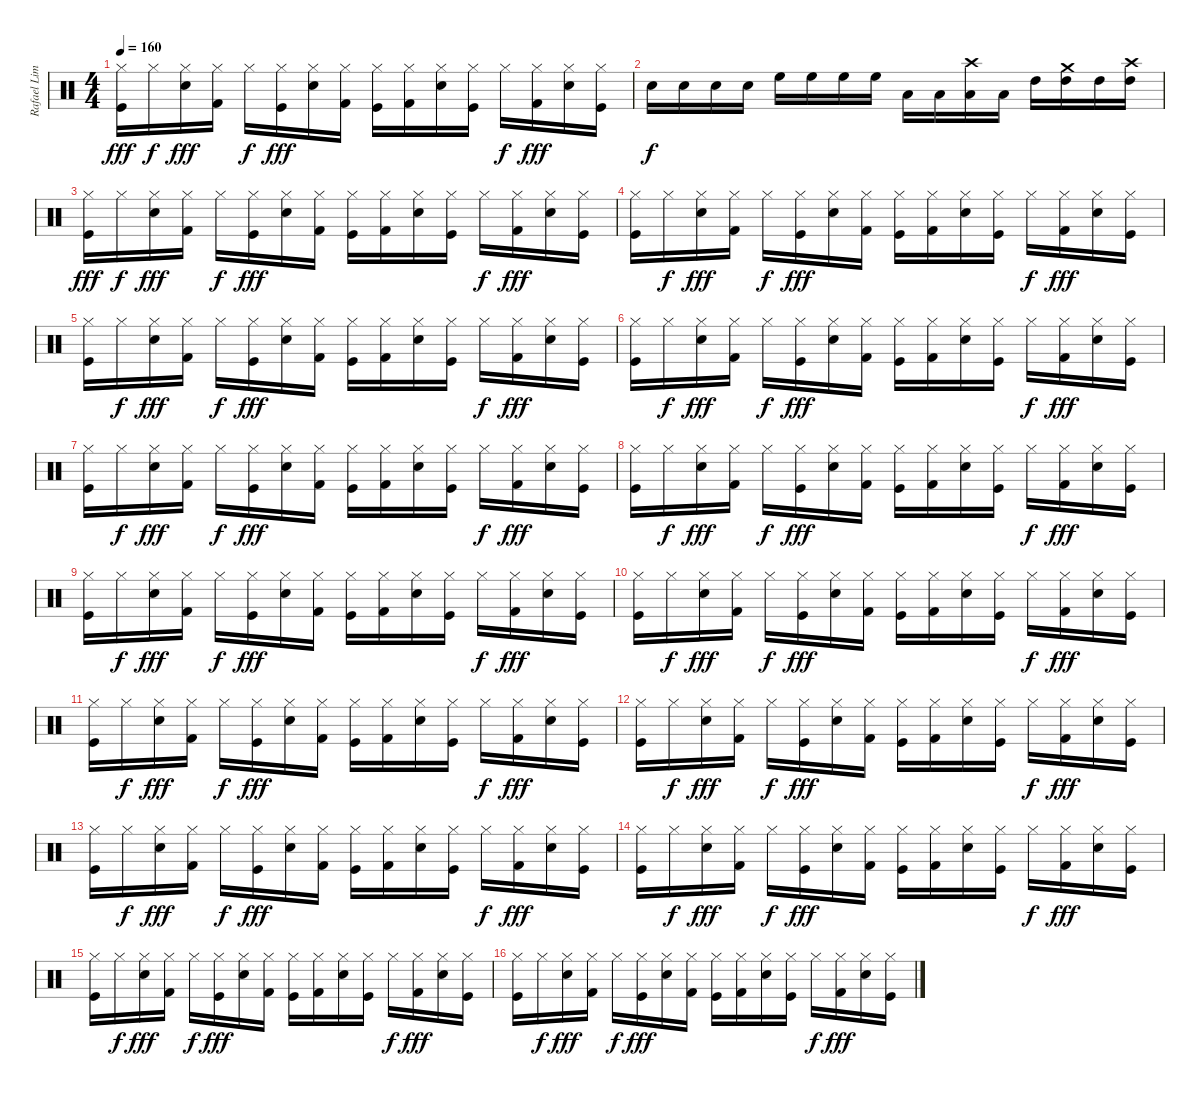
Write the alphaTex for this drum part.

\track ("Rafael Lima" "Rafael Lim") {instrument percussion}
\staff {score}
\articulation defaults
\ts (4 4)
\tempo 160
\clef neutral
\ks c
("Hi-Hat (closed)" "Kick (hit)").16{dy fff} "Hi-Hat (closed)".16{dy f} ("Hi-Hat (closed)" "Electric Snare (hit)").16{dy fff} ("Hi-Hat (closed)" "Kick (hit) 2").16 "Hi-Hat (closed)".16{dy f} ("Hi-Hat (closed)" "Kick (hit)").16{dy fff} ("Hi-Hat (closed)" "Electric Snare (hit)").16 ("Hi-Hat (closed)" "Kick (hit) 2").16 ("Hi-Hat (closed)" "Kick (hit)").16 ("Hi-Hat (closed)" "Kick (hit) 2").16 ("Hi-Hat (closed)" "Electric Snare (hit)").16 ("Hi-Hat (closed)" "Kick (hit)").16 "Hi-Hat (closed)".16{dy f} ("Hi-Hat (closed)" "Kick (hit) 2").16{dy fff} ("Hi-Hat (closed)" "Electric Snare (hit)").16 ("Hi-Hat (closed)" "Kick (hit)").16 |
"Electric Snare (hit)".16{dy f} "Electric Snare (hit)".16 "Electric Snare (hit)".16 "Electric Snare (hit)".16 "High Floor Tom (hit)".16 "High Floor Tom (hit)".16 "High Floor Tom (hit)".16 "High Floor Tom (hit)".16 "Low Floor Tom (hit)".16 "Low Floor Tom (hit)".16 ("Crash high (hit)" "Low Floor Tom (hit)").16 "Low Floor Tom (hit)".16 "High Tom (hit)".16 ("Crash medium (hit)" "High Tom (hit)").16 "High Tom (hit)".16 ("Crash high (hit)" "High Tom (hit)").16 |
("Hi-Hat (closed)" "Kick (hit)").16{dy fff} "Hi-Hat (closed)".16{dy f} ("Hi-Hat (closed)" "Electric Snare (hit)").16{dy fff} ("Hi-Hat (closed)" "Kick (hit) 2").16 "Hi-Hat (closed)".16{dy f} ("Hi-Hat (closed)" "Kick (hit)").16{dy fff} ("Hi-Hat (closed)" "Electric Snare (hit)").16 ("Hi-Hat (closed)" "Kick (hit) 2").16 ("Hi-Hat (closed)" "Kick (hit)").16 ("Hi-Hat (closed)" "Kick (hit) 2").16 ("Hi-Hat (closed)" "Electric Snare (hit)").16 ("Hi-Hat (closed)" "Kick (hit)").16 "Hi-Hat (closed)".16{dy f} ("Hi-Hat (closed)" "Kick (hit) 2").16{dy fff} ("Hi-Hat (closed)" "Electric Snare (hit)").16 ("Hi-Hat (closed)" "Kick (hit)").16 |
("Hi-Hat (closed)" "Kick (hit)").16 "Hi-Hat (closed)".16{dy f} ("Hi-Hat (closed)" "Electric Snare (hit)").16{dy fff} ("Hi-Hat (closed)" "Kick (hit) 2").16 "Hi-Hat (closed)".16{dy f} ("Hi-Hat (closed)" "Kick (hit)").16{dy fff} ("Hi-Hat (closed)" "Electric Snare (hit)").16 ("Hi-Hat (closed)" "Kick (hit) 2").16 ("Hi-Hat (closed)" "Kick (hit)").16 ("Hi-Hat (closed)" "Kick (hit) 2").16 ("Hi-Hat (closed)" "Electric Snare (hit)").16 ("Hi-Hat (closed)" "Kick (hit)").16 "Hi-Hat (closed)".16{dy f} ("Hi-Hat (closed)" "Kick (hit) 2").16{dy fff} ("Hi-Hat (closed)" "Electric Snare (hit)").16 ("Hi-Hat (closed)" "Kick (hit)").16 |
("Hi-Hat (closed)" "Kick (hit)").16 "Hi-Hat (closed)".16{dy f} ("Hi-Hat (closed)" "Electric Snare (hit)").16{dy fff} ("Hi-Hat (closed)" "Kick (hit) 2").16 "Hi-Hat (closed)".16{dy f} ("Hi-Hat (closed)" "Kick (hit)").16{dy fff} ("Hi-Hat (closed)" "Electric Snare (hit)").16 ("Hi-Hat (closed)" "Kick (hit) 2").16 ("Hi-Hat (closed)" "Kick (hit)").16 ("Hi-Hat (closed)" "Kick (hit) 2").16 ("Hi-Hat (closed)" "Electric Snare (hit)").16 ("Hi-Hat (closed)" "Kick (hit)").16 "Hi-Hat (closed)".16{dy f} ("Hi-Hat (closed)" "Kick (hit) 2").16{dy fff} ("Hi-Hat (closed)" "Electric Snare (hit)").16 ("Hi-Hat (closed)" "Kick (hit)").16 |
("Hi-Hat (closed)" "Kick (hit)").16 "Hi-Hat (closed)".16{dy f} ("Hi-Hat (closed)" "Electric Snare (hit)").16{dy fff} ("Hi-Hat (closed)" "Kick (hit) 2").16 "Hi-Hat (closed)".16{dy f} ("Hi-Hat (closed)" "Kick (hit)").16{dy fff} ("Hi-Hat (closed)" "Electric Snare (hit)").16 ("Hi-Hat (closed)" "Kick (hit) 2").16 ("Hi-Hat (closed)" "Kick (hit)").16 ("Hi-Hat (closed)" "Kick (hit) 2").16 ("Hi-Hat (closed)" "Electric Snare (hit)").16 ("Hi-Hat (closed)" "Kick (hit)").16 "Hi-Hat (closed)".16{dy f} ("Hi-Hat (closed)" "Kick (hit) 2").16{dy fff} ("Hi-Hat (closed)" "Electric Snare (hit)").16 ("Hi-Hat (closed)" "Kick (hit)").16 |
("Hi-Hat (closed)" "Kick (hit)").16 "Hi-Hat (closed)".16{dy f} ("Hi-Hat (closed)" "Electric Snare (hit)").16{dy fff} ("Hi-Hat (closed)" "Kick (hit) 2").16 "Hi-Hat (closed)".16{dy f} ("Hi-Hat (closed)" "Kick (hit)").16{dy fff} ("Hi-Hat (closed)" "Electric Snare (hit)").16 ("Hi-Hat (closed)" "Kick (hit) 2").16 ("Hi-Hat (closed)" "Kick (hit)").16 ("Hi-Hat (closed)" "Kick (hit) 2").16 ("Hi-Hat (closed)" "Electric Snare (hit)").16 ("Hi-Hat (closed)" "Kick (hit)").16 "Hi-Hat (closed)".16{dy f} ("Hi-Hat (closed)" "Kick (hit) 2").16{dy fff} ("Hi-Hat (closed)" "Electric Snare (hit)").16 ("Hi-Hat (closed)" "Kick (hit)").16 |
("Hi-Hat (closed)" "Kick (hit)").16 "Hi-Hat (closed)".16{dy f} ("Hi-Hat (closed)" "Electric Snare (hit)").16{dy fff} ("Hi-Hat (closed)" "Kick (hit) 2").16 "Hi-Hat (closed)".16{dy f} ("Hi-Hat (closed)" "Kick (hit)").16{dy fff} ("Hi-Hat (closed)" "Electric Snare (hit)").16 ("Hi-Hat (closed)" "Kick (hit) 2").16 ("Hi-Hat (closed)" "Kick (hit)").16 ("Hi-Hat (closed)" "Kick (hit) 2").16 ("Hi-Hat (closed)" "Electric Snare (hit)").16 ("Hi-Hat (closed)" "Kick (hit)").16 "Hi-Hat (closed)".16{dy f} ("Hi-Hat (closed)" "Kick (hit) 2").16{dy fff} ("Hi-Hat (closed)" "Electric Snare (hit)").16 ("Hi-Hat (closed)" "Kick (hit)").16 |
("Hi-Hat (closed)" "Kick (hit)").16 "Hi-Hat (closed)".16{dy f} ("Hi-Hat (closed)" "Electric Snare (hit)").16{dy fff} ("Hi-Hat (closed)" "Kick (hit) 2").16 "Hi-Hat (closed)".16{dy f} ("Hi-Hat (closed)" "Kick (hit)").16{dy fff} ("Hi-Hat (closed)" "Electric Snare (hit)").16 ("Hi-Hat (closed)" "Kick (hit) 2").16 ("Hi-Hat (closed)" "Kick (hit)").16 ("Hi-Hat (closed)" "Kick (hit) 2").16 ("Hi-Hat (closed)" "Electric Snare (hit)").16 ("Hi-Hat (closed)" "Kick (hit)").16 "Hi-Hat (closed)".16{dy f} ("Hi-Hat (closed)" "Kick (hit) 2").16{dy fff} ("Hi-Hat (closed)" "Electric Snare (hit)").16 ("Hi-Hat (closed)" "Kick (hit)").16 |
("Hi-Hat (closed)" "Kick (hit)").16 "Hi-Hat (closed)".16{dy f} ("Hi-Hat (closed)" "Electric Snare (hit)").16{dy fff} ("Hi-Hat (closed)" "Kick (hit) 2").16 "Hi-Hat (closed)".16{dy f} ("Hi-Hat (closed)" "Kick (hit)").16{dy fff} ("Hi-Hat (closed)" "Electric Snare (hit)").16 ("Hi-Hat (closed)" "Kick (hit) 2").16 ("Hi-Hat (closed)" "Kick (hit)").16 ("Hi-Hat (closed)" "Kick (hit) 2").16 ("Hi-Hat (closed)" "Electric Snare (hit)").16 ("Hi-Hat (closed)" "Kick (hit)").16 "Hi-Hat (closed)".16{dy f} ("Hi-Hat (closed)" "Kick (hit) 2").16{dy fff} ("Hi-Hat (closed)" "Electric Snare (hit)").16 ("Hi-Hat (closed)" "Kick (hit)").16 |
("Hi-Hat (closed)" "Kick (hit)").16 "Hi-Hat (closed)".16{dy f} ("Hi-Hat (closed)" "Electric Snare (hit)").16{dy fff} ("Hi-Hat (closed)" "Kick (hit) 2").16 "Hi-Hat (closed)".16{dy f} ("Hi-Hat (closed)" "Kick (hit)").16{dy fff} ("Hi-Hat (closed)" "Electric Snare (hit)").16 ("Hi-Hat (closed)" "Kick (hit) 2").16 ("Hi-Hat (closed)" "Kick (hit)").16 ("Hi-Hat (closed)" "Kick (hit) 2").16 ("Hi-Hat (closed)" "Electric Snare (hit)").16 ("Hi-Hat (closed)" "Kick (hit)").16 "Hi-Hat (closed)".16{dy f} ("Hi-Hat (closed)" "Kick (hit) 2").16{dy fff} ("Hi-Hat (closed)" "Electric Snare (hit)").16 ("Hi-Hat (closed)" "Kick (hit)").16 |
("Hi-Hat (closed)" "Kick (hit)").16 "Hi-Hat (closed)".16{dy f} ("Hi-Hat (closed)" "Electric Snare (hit)").16{dy fff} ("Hi-Hat (closed)" "Kick (hit) 2").16 "Hi-Hat (closed)".16{dy f} ("Hi-Hat (closed)" "Kick (hit)").16{dy fff} ("Hi-Hat (closed)" "Electric Snare (hit)").16 ("Hi-Hat (closed)" "Kick (hit) 2").16 ("Hi-Hat (closed)" "Kick (hit)").16 ("Hi-Hat (closed)" "Kick (hit) 2").16 ("Hi-Hat (closed)" "Electric Snare (hit)").16 ("Hi-Hat (closed)" "Kick (hit)").16 "Hi-Hat (closed)".16{dy f} ("Hi-Hat (closed)" "Kick (hit) 2").16{dy fff} ("Hi-Hat (closed)" "Electric Snare (hit)").16 ("Hi-Hat (closed)" "Kick (hit)").16 |
("Hi-Hat (closed)" "Kick (hit)").16 "Hi-Hat (closed)".16{dy f} ("Hi-Hat (closed)" "Electric Snare (hit)").16{dy fff} ("Hi-Hat (closed)" "Kick (hit) 2").16 "Hi-Hat (closed)".16{dy f} ("Hi-Hat (closed)" "Kick (hit)").16{dy fff} ("Hi-Hat (closed)" "Electric Snare (hit)").16 ("Hi-Hat (closed)" "Kick (hit) 2").16 ("Hi-Hat (closed)" "Kick (hit)").16 ("Hi-Hat (closed)" "Kick (hit) 2").16 ("Hi-Hat (closed)" "Electric Snare (hit)").16 ("Hi-Hat (closed)" "Kick (hit)").16 "Hi-Hat (closed)".16{dy f} ("Hi-Hat (closed)" "Kick (hit) 2").16{dy fff} ("Hi-Hat (closed)" "Electric Snare (hit)").16 ("Hi-Hat (closed)" "Kick (hit)").16 |
("Hi-Hat (closed)" "Kick (hit)").16 "Hi-Hat (closed)".16{dy f} ("Hi-Hat (closed)" "Electric Snare (hit)").16{dy fff} ("Hi-Hat (closed)" "Kick (hit) 2").16 "Hi-Hat (closed)".16{dy f} ("Hi-Hat (closed)" "Kick (hit)").16{dy fff} ("Hi-Hat (closed)" "Electric Snare (hit)").16 ("Hi-Hat (closed)" "Kick (hit) 2").16 ("Hi-Hat (closed)" "Kick (hit)").16 ("Hi-Hat (closed)" "Kick (hit) 2").16 ("Hi-Hat (closed)" "Electric Snare (hit)").16 ("Hi-Hat (closed)" "Kick (hit)").16 "Hi-Hat (closed)".16{dy f} ("Hi-Hat (closed)" "Kick (hit) 2").16{dy fff} ("Hi-Hat (closed)" "Electric Snare (hit)").16 ("Hi-Hat (closed)" "Kick (hit)").16 |
("Hi-Hat (closed)" "Kick (hit)").16 "Hi-Hat (closed)".16{dy f} ("Hi-Hat (closed)" "Electric Snare (hit)").16{dy fff} ("Hi-Hat (closed)" "Kick (hit) 2").16 "Hi-Hat (closed)".16{dy f} ("Hi-Hat (closed)" "Kick (hit)").16{dy fff} ("Hi-Hat (closed)" "Electric Snare (hit)").16 ("Hi-Hat (closed)" "Kick (hit) 2").16 ("Hi-Hat (closed)" "Kick (hit)").16 ("Hi-Hat (closed)" "Kick (hit) 2").16 ("Hi-Hat (closed)" "Electric Snare (hit)").16 ("Hi-Hat (closed)" "Kick (hit)").16 "Hi-Hat (closed)".16{dy f} ("Hi-Hat (closed)" "Kick (hit) 2").16{dy fff} ("Hi-Hat (closed)" "Electric Snare (hit)").16 ("Hi-Hat (closed)" "Kick (hit)").16 |
("Hi-Hat (closed)" "Kick (hit)").16 "Hi-Hat (closed)".16{dy f} ("Hi-Hat (closed)" "Electric Snare (hit)").16{dy fff} ("Hi-Hat (closed)" "Kick (hit) 2").16 "Hi-Hat (closed)".16{dy f} ("Hi-Hat (closed)" "Kick (hit)").16{dy fff} ("Hi-Hat (closed)" "Electric Snare (hit)").16 ("Hi-Hat (closed)" "Kick (hit) 2").16 ("Hi-Hat (closed)" "Kick (hit)").16 ("Hi-Hat (closed)" "Kick (hit) 2").16 ("Hi-Hat (closed)" "Electric Snare (hit)").16 ("Hi-Hat (closed)" "Kick (hit)").16 "Hi-Hat (closed)".16{dy f} ("Hi-Hat (closed)" "Kick (hit) 2").16{dy fff} ("Hi-Hat (closed)" "Electric Snare (hit)").16 ("Hi-Hat (closed)" "Kick (hit)").16
